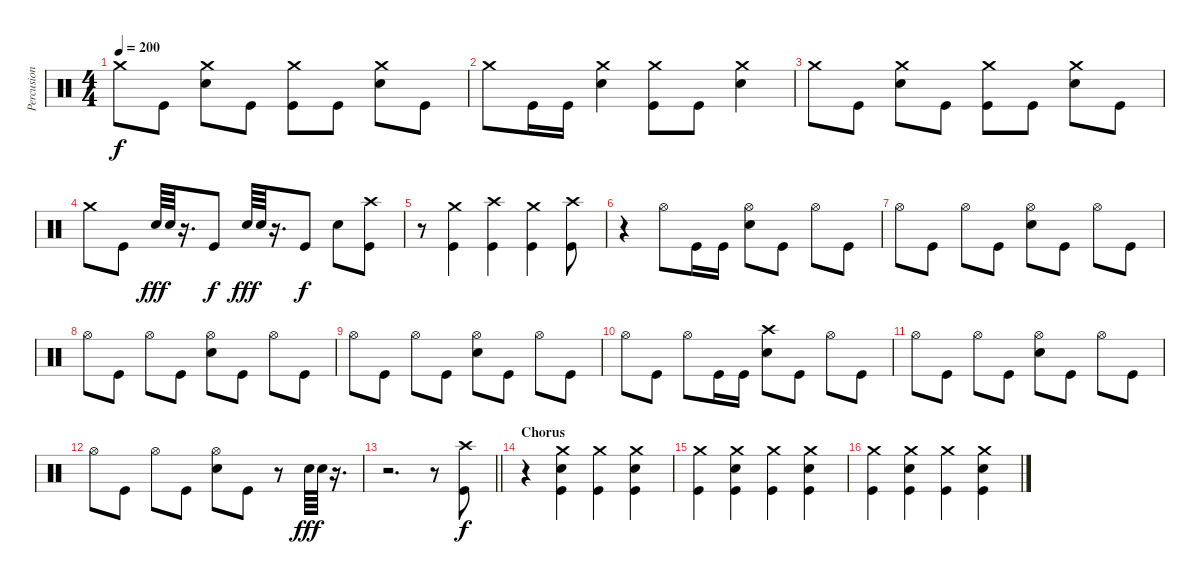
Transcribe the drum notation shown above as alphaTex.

\track ("Percusion" "Percusion") {instrument percussion}
\staff {score}
\articulation defaults
\ts (4 4)
\tempo 200
\clef neutral
\ks c "Crash medium (hit)".8{dy f} "Kick (hit)".8
("Snare (hit) 2" "Crash medium (hit)").8 "Kick (hit)".8 ("Kick (hit)" "Crash medium (hit)").8 "Kick (hit)".8 ("Crash medium (hit)" "Snare (hit) 2").8 "Kick (hit)".8 |
"Crash medium (hit)".8 "Kick (hit)".16 "Kick (hit)".16 ("Snare (hit) 2" "Crash medium (hit)").4 ("Crash medium (hit)" "Kick (hit)").8 "Kick (hit)".8 ("Snare (hit) 2" "Crash medium (hit)").4 |
"Crash medium (hit)".8 "Kick (hit)".8 ("Snare (hit) 2" "Crash medium (hit)").8 "Kick (hit)".8 ("Kick (hit)" "Crash medium (hit)").8 "Kick (hit)".8 ("Crash medium (hit)" "Snare (hit) 2").8 "Kick (hit)".8 |
"Crash medium (hit)".8 "Kick (hit)".8 "Snare (hit) 2".64{dy fff} "Snare (hit) 2".64 r.16{d} "Kick (hit)".8{dy f} "Snare (hit) 2".64{dy fff} "Snare (hit) 2".64 r.16{d} "Kick (hit)".8{dy f} "Snare (hit) 2".8 ("Crash high (hit)" "Kick (hit)").8 |
r.8 ("Kick (hit)" "Crash medium (hit)").4 ("Crash high (hit)" "Kick (hit)").4 ("Kick (hit)" "Crash medium (hit)").4 ("Crash high (hit)" "Kick (hit)").8 |
r.4 "Hi-Hat (open)".8 "Kick (hit)".16 "Kick (hit)".16 ("Snare (hit) 2" "Hi-Hat (open)").8 "Kick (hit)".8 "Hi-Hat (open)".8 "Kick (hit)".8 |
"Hi-Hat (open)".8 "Kick (hit)".8 "Hi-Hat (open)".8 "Kick (hit)".8 ("Hi-Hat (open)" "Snare (hit) 2").8 "Kick (hit)".8 "Hi-Hat (open)".8 "Kick (hit)".8 |
"Hi-Hat (open)".8 "Kick (hit)".8 "Hi-Hat (open)".8 "Kick (hit)".8 ("Hi-Hat (open)" "Snare (hit) 2").8 "Kick (hit)".8 "Hi-Hat (open)".8 "Kick (hit)".8 |
"Hi-Hat (open)".8 "Kick (hit)".8 "Hi-Hat (open)".8 "Kick (hit)".8 ("Hi-Hat (open)" "Snare (hit) 2").8 "Kick (hit)".8 "Hi-Hat (open)".8 "Kick (hit)".8 |
"Hi-Hat (open)".8 "Kick (hit)".8 "Hi-Hat (open)".8 "Kick (hit)".16 "Kick (hit)".16 ("Crash high (hit)" "Snare (hit) 2").8 "Kick (hit)".8 "Hi-Hat (open)".8 "Kick (hit)".8 |
"Hi-Hat (open)".8 "Kick (hit)".8 "Hi-Hat (open)".8 "Kick (hit)".8 ("Hi-Hat (open)" "Snare (hit) 2").8 "Kick (hit)".8 "Hi-Hat (open)".8 "Kick (hit)".8 |
"Hi-Hat (open)".8 "Kick (hit)".8 "Hi-Hat (open)".8 "Kick (hit)".8 ("Hi-Hat (open)" "Snare (hit) 2").8 "Kick (hit)".8 r.8 "Snare (hit) 2".64{dy fff} "Snare (hit) 2".64 r.16{d} |
\barLineRight lightlight
r.2{d} r.8 ("Kick (hit)" "Crash high (hit)").8{dy f} |
\section ("" "Chorus")
r.4 ("Crash medium (hit)" "Kick (hit)" "Snare (hit) 2").4 ("Kick (hit)" "Crash medium (hit)").4 ("Crash medium (hit)" "Kick (hit)" "Snare (hit) 2").4 |
("Kick (hit)" "Crash medium (hit)").4 ("Crash medium (hit)" "Kick (hit)" "Snare (hit) 2").4 ("Kick (hit)" "Crash medium (hit)").4 ("Crash medium (hit)" "Kick (hit)" "Snare (hit) 2").4 |
("Kick (hit)" "Crash medium (hit)").4 ("Crash medium (hit)" "Kick (hit)" "Snare (hit) 2").4 ("Kick (hit)" "Crash medium (hit)").4 ("Crash medium (hit)" "Kick (hit)" "Snare (hit) 2").4
